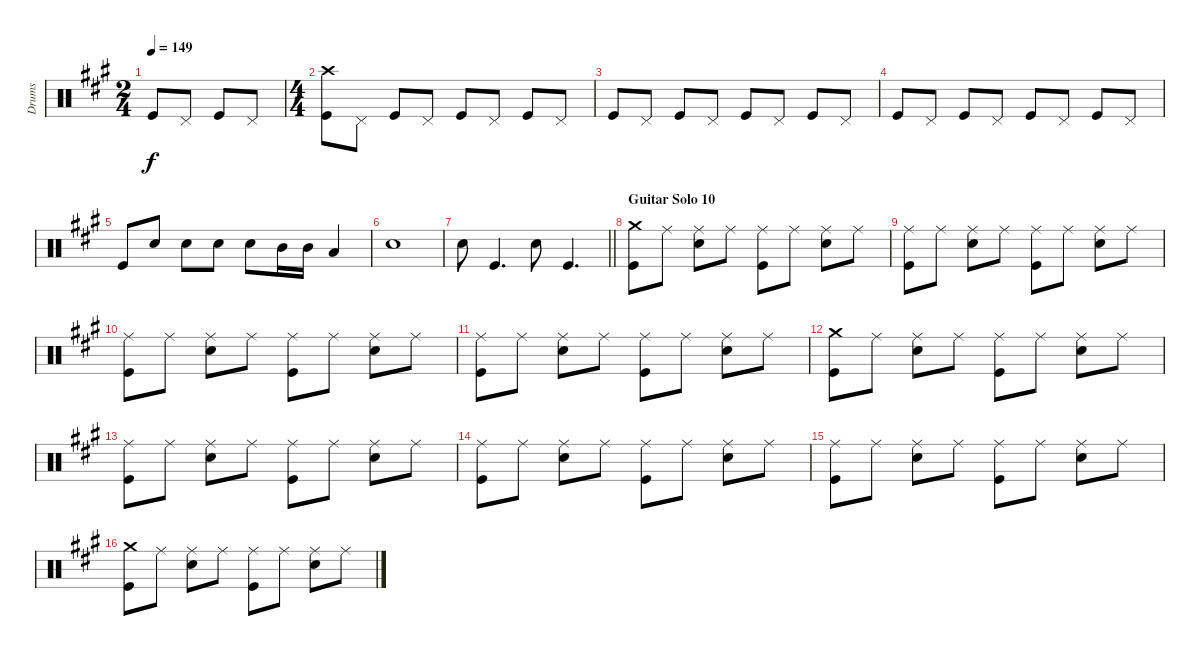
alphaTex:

\track ("Drums" "Drums") {instrument percussion}
\staff {score}
\articulation defaults
\ts (2 4)
\tempo 149
\clef neutral
\ks f#minor "Kick (hit)".8{dy f} "Pedal Hi-Hat (hit)".8 "Kick (hit)".8 "Pedal Hi-Hat (hit)".8
|
\ts (4 4)
("Crash high (hit)" "Kick (hit)").8 "Pedal Hi-Hat (hit)".8 "Kick (hit)".8 "Pedal Hi-Hat (hit)".8 "Kick (hit)".8 "Pedal Hi-Hat (hit)".8 "Kick (hit)".8 "Pedal Hi-Hat (hit)".8 |
"Kick (hit)".8 "Pedal Hi-Hat (hit)".8 "Kick (hit)".8 "Pedal Hi-Hat (hit)".8 "Kick (hit)".8 "Pedal Hi-Hat (hit)".8 "Kick (hit)".8 "Pedal Hi-Hat (hit)".8 |
"Kick (hit)".8 "Pedal Hi-Hat (hit)".8 "Kick (hit)".8 "Pedal Hi-Hat (hit)".8 "Kick (hit)".8 "Pedal Hi-Hat (hit)".8 "Kick (hit)".8 "Pedal Hi-Hat (hit)".8 |
"Kick (hit)".8 "Snare (hit) 2".8 "Snare (hit) 2".8 "Snare (hit) 2".8 "Snare (hit) 2".8 "Mid Tom (hit)".16 "Mid Tom (hit)".16 "Low Tom (hit)".4 |
"Snare (hit) 2".1 |
\barLineRight lightlight "Snare (hit) 2".8 "Kick (hit)".4{d} "Snare (hit) 2".8 "Kick (hit)".4{d}
|
\section ("" "Guitar Solo 10")
("Crash medium (hit)" "Kick (hit)").8 "Ride (middle)".8 ("Ride (middle)" "Snare (hit) 2").8 "Ride (middle)".8 ("Ride (middle)" "Kick (hit)").8 "Ride (middle)".8 ("Ride (middle)" "Snare (hit) 2").8 "Ride (middle)".8 |
("Ride (middle)" "Kick (hit)").8 "Ride (middle)".8 ("Ride (middle)" "Snare (hit) 2").8 "Ride (middle)".8 ("Ride (middle)" "Kick (hit)").8 "Ride (middle)".8 ("Ride (middle)" "Snare (hit) 2").8 "Ride (middle)".8 |
("Ride (middle)" "Kick (hit)").8 "Ride (middle)".8 ("Ride (middle)" "Snare (hit) 2").8 "Ride (middle)".8 ("Ride (middle)" "Kick (hit)").8 "Ride (middle)".8 ("Ride (middle)" "Snare (hit) 2").8 "Ride (middle)".8 |
("Ride (middle)" "Kick (hit)").8 "Ride (middle)".8 ("Ride (middle)" "Snare (hit) 2").8 "Ride (middle)".8 ("Ride (middle)" "Kick (hit)").8 "Ride (middle)".8 ("Ride (middle)" "Snare (hit) 2").8 "Ride (middle)".8 |
("Crash medium (hit)" "Kick (hit)").8 "Ride (middle)".8 ("Ride (middle)" "Snare (hit) 2").8 "Ride (middle)".8 ("Ride (middle)" "Kick (hit)").8 "Ride (middle)".8 ("Ride (middle)" "Snare (hit) 2").8 "Ride (middle)".8 |
("Ride (middle)" "Kick (hit)").8 "Ride (middle)".8 ("Ride (middle)" "Snare (hit) 2").8 "Ride (middle)".8 ("Ride (middle)" "Kick (hit)").8 "Ride (middle)".8 ("Ride (middle)" "Snare (hit) 2").8 "Ride (middle)".8 |
("Ride (middle)" "Kick (hit)").8 "Ride (middle)".8 ("Ride (middle)" "Snare (hit) 2").8 "Ride (middle)".8 ("Ride (middle)" "Kick (hit)").8 "Ride (middle)".8 ("Ride (middle)" "Snare (hit) 2").8 "Ride (middle)".8 |
("Ride (middle)" "Kick (hit)").8 "Ride (middle)".8 ("Ride (middle)" "Snare (hit) 2").8 "Ride (middle)".8 ("Ride (middle)" "Kick (hit)").8 "Ride (middle)".8 ("Ride (middle)" "Snare (hit) 2").8 "Ride (middle)".8 |
("Crash medium (hit)" "Kick (hit)").8 "Ride (middle)".8 ("Ride (middle)" "Snare (hit) 2").8 "Ride (middle)".8 ("Ride (middle)" "Kick (hit)").8 "Ride (middle)".8 ("Ride (middle)" "Snare (hit) 2").8 "Ride (middle)".8
